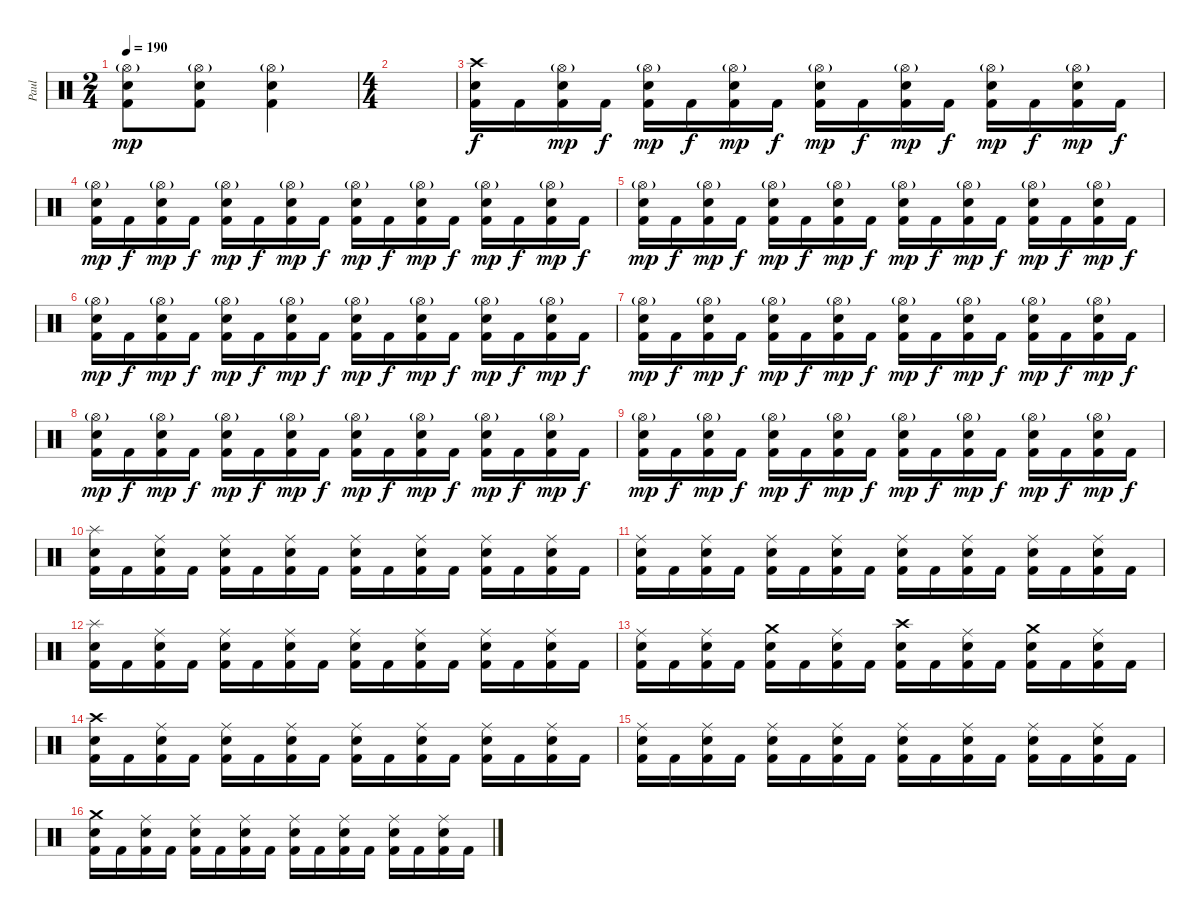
\track ("Paul" "Paul") {instrument percussion}
\staff {score}
\articulation defaults
\ts (2 4)
\tempo 190
\clef neutral
\ks c
("Hi-Hat (open)"{g} "Electric Snare (hit)" "Kick (hit) 2").8{dy mp} ("Hi-Hat (open)"{g} "Electric Snare (hit)" "Kick (hit) 2").8 ("Hi-Hat (open)"{g} "Electric Snare (hit)" "Kick (hit) 2").4 |
\ts (4 4)
|
("Crash high (hit)" "Electric Snare (hit)" "Kick (hit) 2").16{dy f} "Kick (hit) 2".16 ("Hi-Hat (open)"{g} "Electric Snare (hit)" "Kick (hit) 2").16{dy mp} "Kick (hit) 2".16{dy f} ("Hi-Hat (open)"{g} "Electric Snare (hit)" "Kick (hit) 2").16{dy mp} "Kick (hit) 2".16{dy f} ("Hi-Hat (open)"{g} "Electric Snare (hit)" "Kick (hit) 2").16{dy mp} "Kick (hit) 2".16{dy f} ("Hi-Hat (open)"{g} "Electric Snare (hit)" "Kick (hit) 2").16{dy mp} "Kick (hit) 2".16{dy f} ("Hi-Hat (open)"{g} "Electric Snare (hit)" "Kick (hit) 2").16{dy mp} "Kick (hit) 2".16{dy f} ("Hi-Hat (open)"{g} "Electric Snare (hit)" "Kick (hit) 2").16{dy mp} "Kick (hit) 2".16{dy f} ("Hi-Hat (open)"{g} "Electric Snare (hit)" "Kick (hit) 2").16{dy mp} "Kick (hit) 2".16{dy f} |
("Hi-Hat (open)"{g} "Electric Snare (hit)" "Kick (hit) 2").16{dy mp} "Kick (hit) 2".16{dy f} ("Hi-Hat (open)"{g} "Electric Snare (hit)" "Kick (hit) 2").16{dy mp} "Kick (hit) 2".16{dy f} ("Hi-Hat (open)"{g} "Electric Snare (hit)" "Kick (hit) 2").16{dy mp} "Kick (hit) 2".16{dy f} ("Hi-Hat (open)"{g} "Electric Snare (hit)" "Kick (hit) 2").16{dy mp} "Kick (hit) 2".16{dy f} ("Hi-Hat (open)"{g} "Electric Snare (hit)" "Kick (hit) 2").16{dy mp} "Kick (hit) 2".16{dy f} ("Hi-Hat (open)"{g} "Electric Snare (hit)" "Kick (hit) 2").16{dy mp} "Kick (hit) 2".16{dy f} ("Hi-Hat (open)"{g} "Electric Snare (hit)" "Kick (hit) 2").16{dy mp} "Kick (hit) 2".16{dy f} ("Hi-Hat (open)"{g} "Electric Snare (hit)" "Kick (hit) 2").16{dy mp} "Kick (hit) 2".16{dy f} |
("Hi-Hat (open)"{g} "Electric Snare (hit)" "Kick (hit) 2").16{dy mp} "Kick (hit) 2".16{dy f} ("Hi-Hat (open)"{g} "Electric Snare (hit)" "Kick (hit) 2").16{dy mp} "Kick (hit) 2".16{dy f} ("Hi-Hat (open)"{g} "Electric Snare (hit)" "Kick (hit) 2").16{dy mp} "Kick (hit) 2".16{dy f} ("Hi-Hat (open)"{g} "Electric Snare (hit)" "Kick (hit) 2").16{dy mp} "Kick (hit) 2".16{dy f} ("Hi-Hat (open)"{g} "Electric Snare (hit)" "Kick (hit) 2").16{dy mp} "Kick (hit) 2".16{dy f} ("Hi-Hat (open)"{g} "Electric Snare (hit)" "Kick (hit) 2").16{dy mp} "Kick (hit) 2".16{dy f} ("Hi-Hat (open)"{g} "Electric Snare (hit)" "Kick (hit) 2").16{dy mp} "Kick (hit) 2".16{dy f} ("Hi-Hat (open)"{g} "Electric Snare (hit)" "Kick (hit) 2").16{dy mp} "Kick (hit) 2".16{dy f} |
("Hi-Hat (open)"{g} "Electric Snare (hit)" "Kick (hit) 2").16{dy mp} "Kick (hit) 2".16{dy f} ("Hi-Hat (open)"{g} "Electric Snare (hit)" "Kick (hit) 2").16{dy mp} "Kick (hit) 2".16{dy f} ("Hi-Hat (open)"{g} "Electric Snare (hit)" "Kick (hit) 2").16{dy mp} "Kick (hit) 2".16{dy f} ("Hi-Hat (open)"{g} "Electric Snare (hit)" "Kick (hit) 2").16{dy mp} "Kick (hit) 2".16{dy f} ("Hi-Hat (open)"{g} "Electric Snare (hit)" "Kick (hit) 2").16{dy mp} "Kick (hit) 2".16{dy f} ("Hi-Hat (open)"{g} "Electric Snare (hit)" "Kick (hit) 2").16{dy mp} "Kick (hit) 2".16{dy f} ("Hi-Hat (open)"{g} "Electric Snare (hit)" "Kick (hit) 2").16{dy mp} "Kick (hit) 2".16{dy f} ("Hi-Hat (open)"{g} "Electric Snare (hit)" "Kick (hit) 2").16{dy mp} "Kick (hit) 2".16{dy f} |
("Hi-Hat (open)"{g} "Electric Snare (hit)" "Kick (hit) 2").16{dy mp} "Kick (hit) 2".16{dy f} ("Hi-Hat (open)"{g} "Electric Snare (hit)" "Kick (hit) 2").16{dy mp} "Kick (hit) 2".16{dy f} ("Hi-Hat (open)"{g} "Electric Snare (hit)" "Kick (hit) 2").16{dy mp} "Kick (hit) 2".16{dy f} ("Hi-Hat (open)"{g} "Electric Snare (hit)" "Kick (hit) 2").16{dy mp} "Kick (hit) 2".16{dy f} ("Hi-Hat (open)"{g} "Electric Snare (hit)" "Kick (hit) 2").16{dy mp} "Kick (hit) 2".16{dy f} ("Hi-Hat (open)"{g} "Electric Snare (hit)" "Kick (hit) 2").16{dy mp} "Kick (hit) 2".16{dy f} ("Hi-Hat (open)"{g} "Electric Snare (hit)" "Kick (hit) 2").16{dy mp} "Kick (hit) 2".16{dy f} ("Hi-Hat (open)"{g} "Electric Snare (hit)" "Kick (hit) 2").16{dy mp} "Kick (hit) 2".16{dy f} |
("Hi-Hat (open)"{g} "Electric Snare (hit)" "Kick (hit) 2").16{dy mp} "Kick (hit) 2".16{dy f} ("Hi-Hat (open)"{g} "Electric Snare (hit)" "Kick (hit) 2").16{dy mp} "Kick (hit) 2".16{dy f} ("Hi-Hat (open)"{g} "Electric Snare (hit)" "Kick (hit) 2").16{dy mp} "Kick (hit) 2".16{dy f} ("Hi-Hat (open)"{g} "Electric Snare (hit)" "Kick (hit) 2").16{dy mp} "Kick (hit) 2".16{dy f} ("Hi-Hat (open)"{g} "Electric Snare (hit)" "Kick (hit) 2").16{dy mp} "Kick (hit) 2".16{dy f} ("Hi-Hat (open)"{g} "Electric Snare (hit)" "Kick (hit) 2").16{dy mp} "Kick (hit) 2".16{dy f} ("Hi-Hat (open)"{g} "Electric Snare (hit)" "Kick (hit) 2").16{dy mp} "Kick (hit) 2".16{dy f} ("Hi-Hat (open)"{g} "Electric Snare (hit)" "Kick (hit) 2").16{dy mp} "Kick (hit) 2".16{dy f} |
("Hi-Hat (open)"{g} "Electric Snare (hit)" "Kick (hit) 2").16{dy mp} "Kick (hit) 2".16{dy f} ("Hi-Hat (open)"{g} "Electric Snare (hit)" "Kick (hit) 2").16{dy mp} "Kick (hit) 2".16{dy f} ("Hi-Hat (open)"{g} "Electric Snare (hit)" "Kick (hit) 2").16{dy mp} "Kick (hit) 2".16{dy f} ("Hi-Hat (open)"{g} "Electric Snare (hit)" "Kick (hit) 2").16{dy mp} "Kick (hit) 2".16{dy f} ("Hi-Hat (open)"{g} "Electric Snare (hit)" "Kick (hit) 2").16{dy mp} "Kick (hit) 2".16{dy f} ("Hi-Hat (open)"{g} "Electric Snare (hit)" "Kick (hit) 2").16{dy mp} "Kick (hit) 2".16{dy f} ("Hi-Hat (open)"{g} "Electric Snare (hit)" "Kick (hit) 2").16{dy mp} "Kick (hit) 2".16{dy f} ("Hi-Hat (open)"{g} "Electric Snare (hit)" "Kick (hit) 2").16{dy mp} "Kick (hit) 2".16{dy f} |
("Electric Snare (hit)" "Splash (hit)" "Kick (hit) 2").16 "Kick (hit) 2".16 ("Electric Snare (hit)" "Ride (middle)" "Kick (hit) 2").16 "Kick (hit) 2".16 ("Electric Snare (hit)" "Ride (middle)" "Kick (hit) 2").16 "Kick (hit) 2".16 ("Electric Snare (hit)" "Ride (middle)" "Kick (hit) 2").16 "Kick (hit) 2".16 ("Electric Snare (hit)" "Ride (middle)" "Kick (hit) 2").16 "Kick (hit) 2".16 ("Electric Snare (hit)" "Ride (middle)" "Kick (hit) 2").16 "Kick (hit) 2".16 ("Electric Snare (hit)" "Ride (middle)" "Kick (hit) 2").16 "Kick (hit) 2".16 ("Electric Snare (hit)" "Ride (middle)" "Kick (hit) 2").16 "Kick (hit) 2".16 |
("Electric Snare (hit)" "Ride (middle)" "Kick (hit) 2").16 "Kick (hit) 2".16 ("Electric Snare (hit)" "Ride (middle)" "Kick (hit) 2").16 "Kick (hit) 2".16 ("Electric Snare (hit)" "Ride (middle)" "Kick (hit) 2").16 "Kick (hit) 2".16 ("Electric Snare (hit)" "Ride (middle)" "Kick (hit) 2").16 "Kick (hit) 2".16 ("Electric Snare (hit)" "Ride (middle)" "Kick (hit) 2").16 "Kick (hit) 2".16 ("Electric Snare (hit)" "Ride (middle)" "Kick (hit) 2").16 "Kick (hit) 2".16 ("Electric Snare (hit)" "Ride (middle)" "Kick (hit) 2").16 "Kick (hit) 2".16 ("Electric Snare (hit)" "Ride (middle)" "Kick (hit) 2").16 "Kick (hit) 2".16 |
("Electric Snare (hit)" "Splash (hit)" "Kick (hit) 2").16 "Kick (hit) 2".16 ("Electric Snare (hit)" "Ride (middle)" "Kick (hit) 2").16 "Kick (hit) 2".16 ("Electric Snare (hit)" "Ride (middle)" "Kick (hit) 2").16 "Kick (hit) 2".16 ("Electric Snare (hit)" "Ride (middle)" "Kick (hit) 2").16 "Kick (hit) 2".16 ("Electric Snare (hit)" "Ride (middle)" "Kick (hit) 2").16 "Kick (hit) 2".16 ("Electric Snare (hit)" "Ride (middle)" "Kick (hit) 2").16 "Kick (hit) 2".16 ("Electric Snare (hit)" "Ride (middle)" "Kick (hit) 2").16 "Kick (hit) 2".16 ("Electric Snare (hit)" "Ride (middle)" "Kick (hit) 2").16 "Kick (hit) 2".16 |
("Electric Snare (hit)" "Ride (middle)" "Kick (hit) 2").16 "Kick (hit) 2".16 ("Electric Snare (hit)" "Ride (middle)" "Kick (hit) 2").16 "Kick (hit) 2".16 ("Electric Snare (hit)" "Crash medium (hit)" "Kick (hit) 2").16 "Kick (hit) 2".16 ("Electric Snare (hit)" "Ride (middle)" "Kick (hit) 2").16 "Kick (hit) 2".16 ("Electric Snare (hit)" "Crash high (hit)" "Kick (hit) 2").16 "Kick (hit) 2".16 ("Electric Snare (hit)" "Ride (middle)" "Kick (hit) 2").16 "Kick (hit) 2".16 ("Electric Snare (hit)" "Crash medium (hit)" "Kick (hit) 2").16 "Kick (hit) 2".16 ("Electric Snare (hit)" "Ride (middle)" "Kick (hit) 2").16 "Kick (hit) 2".16 |
("Electric Snare (hit)" "Crash high (hit)" "Kick (hit) 2").16 "Kick (hit) 2".16 ("Electric Snare (hit)" "Ride (middle)" "Kick (hit) 2").16 "Kick (hit) 2".16 ("Electric Snare (hit)" "Ride (middle)" "Kick (hit) 2").16 "Kick (hit) 2".16 ("Electric Snare (hit)" "Ride (middle)" "Kick (hit) 2").16 "Kick (hit) 2".16 ("Electric Snare (hit)" "Ride (middle)" "Kick (hit) 2").16 "Kick (hit) 2".16 ("Electric Snare (hit)" "Ride (middle)" "Kick (hit) 2").16 "Kick (hit) 2".16 ("Electric Snare (hit)" "Ride (middle)" "Kick (hit) 2").16 "Kick (hit) 2".16 ("Electric Snare (hit)" "Ride (middle)" "Kick (hit) 2").16 "Kick (hit) 2".16 |
("Electric Snare (hit)" "Ride (middle)" "Kick (hit) 2").16 "Kick (hit) 2".16 ("Electric Snare (hit)" "Ride (middle)" "Kick (hit) 2").16 "Kick (hit) 2".16 ("Electric Snare (hit)" "Ride (middle)" "Kick (hit) 2").16 "Kick (hit) 2".16 ("Electric Snare (hit)" "Ride (middle)" "Kick (hit) 2").16 "Kick (hit) 2".16 ("Electric Snare (hit)" "Ride (middle)" "Kick (hit) 2").16 "Kick (hit) 2".16 ("Electric Snare (hit)" "Ride (middle)" "Kick (hit) 2").16 "Kick (hit) 2".16 ("Electric Snare (hit)" "Ride (middle)" "Kick (hit) 2").16 "Kick (hit) 2".16 ("Electric Snare (hit)" "Ride (middle)" "Kick (hit) 2").16 "Kick (hit) 2".16 |
("Electric Snare (hit)" "Crash medium (hit)" "Kick (hit) 2").16 "Kick (hit) 2".16 ("Electric Snare (hit)" "Ride (middle)" "Kick (hit) 2").16 "Kick (hit) 2".16 ("Electric Snare (hit)" "Ride (middle)" "Kick (hit) 2").16 "Kick (hit) 2".16 ("Electric Snare (hit)" "Ride (middle)" "Kick (hit) 2").16 "Kick (hit) 2".16 ("Electric Snare (hit)" "Ride (middle)" "Kick (hit) 2").16 "Kick (hit) 2".16 ("Electric Snare (hit)" "Ride (middle)" "Kick (hit) 2").16 "Kick (hit) 2".16 ("Electric Snare (hit)" "Ride (middle)" "Kick (hit) 2").16 "Kick (hit) 2".16 ("Electric Snare (hit)" "Ride (middle)" "Kick (hit) 2").16 "Kick (hit) 2".16
